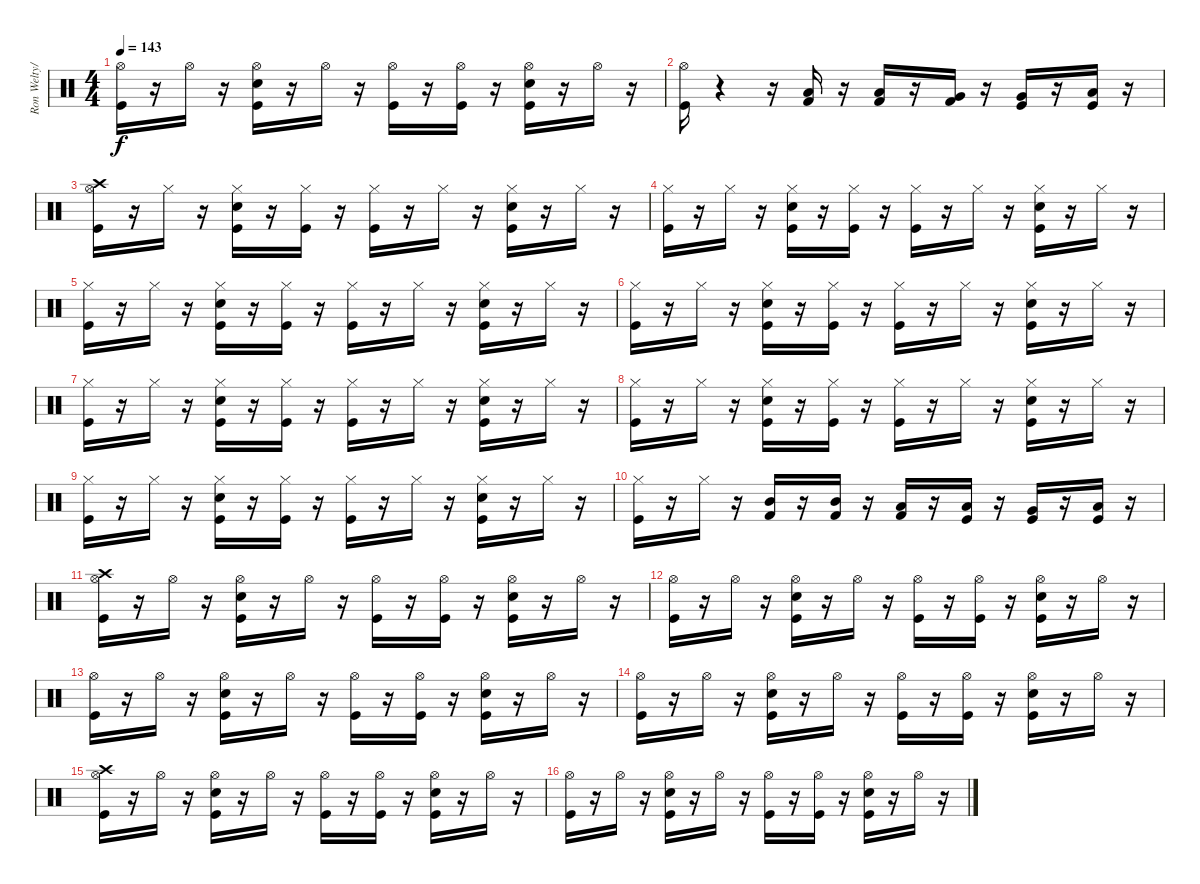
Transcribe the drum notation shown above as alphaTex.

\track ("Ron Welty/Atom Willard" "Ron Welty/") {instrument percussion}
\staff {score}
\articulation defaults
\ts (4 4)
\tempo 143
\clef neutral
\ks c
("Kick (hit)" "Hi-Hat (open)").16{dy f} r.16 "Hi-Hat (open)".16 r.16 ("Snare (hit) 2" "Kick (hit)" "Hi-Hat (open)").16 r.16 "Hi-Hat (open)".16 r.16 ("Kick (hit)" "Hi-Hat (open)").16 r.16 ("Kick (hit)" "Hi-Hat (open)").16 r.16 ("Kick (hit)" "Snare (hit) 2" "Hi-Hat (open)").16 r.16 "Hi-Hat (open)".16 r.16 |
("Kick (hit)" "Hi-Hat (open)").16 r.4 r.16 ("Low Tom (hit)" "Kick (hit) 2").16 r.16 ("Low Tom (hit)" "Kick (hit) 2").16 r.16 ("Very Low Tom (hit)" "Kick (hit) 2").16 r.16 ("Very Low Tom (hit)" "Kick (hit)").16 r.16 ("Low Floor Tom (hit)" "Kick (hit)").16 r.16 |
("Kick (hit)" "Hi-Hat (open)" "Crash high (hit)").16 r.16 "Hi-Hat (closed)".16 r.16 ("Snare (hit) 2" "Kick (hit)" "Hi-Hat (closed)").16 r.16 ("Kick (hit)" "Hi-Hat (closed)").16 r.16 ("Kick (hit)" "Hi-Hat (closed)").16 r.16 "Hi-Hat (closed)".16 r.16 ("Snare (hit) 2" "Kick (hit)" "Hi-Hat (closed)").16 r.16 "Hi-Hat (closed)".16 r.16 |
("Kick (hit)" "Hi-Hat (closed)").16 r.16 "Hi-Hat (closed)".16 r.16 ("Snare (hit) 2" "Kick (hit)" "Hi-Hat (closed)").16 r.16 ("Kick (hit)" "Hi-Hat (closed)").16 r.16 ("Kick (hit)" "Hi-Hat (closed)").16 r.16 "Hi-Hat (closed)".16 r.16 ("Snare (hit) 2" "Kick (hit)" "Hi-Hat (closed)").16 r.16 "Hi-Hat (closed)".16 r.16 |
("Hi-Hat (closed)" "Kick (hit)").16 r.16 "Hi-Hat (closed)".16 r.16 ("Snare (hit) 2" "Kick (hit)" "Hi-Hat (closed)").16 r.16 ("Kick (hit)" "Hi-Hat (closed)").16 r.16 ("Kick (hit)" "Hi-Hat (closed)").16 r.16 "Hi-Hat (closed)".16 r.16 ("Snare (hit) 2" "Kick (hit)" "Hi-Hat (closed)").16 r.16 "Hi-Hat (closed)".16 r.16 |
("Hi-Hat (closed)" "Kick (hit)").16 r.16 "Hi-Hat (closed)".16 r.16 ("Snare (hit) 2" "Kick (hit)" "Hi-Hat (closed)").16 r.16 ("Kick (hit)" "Hi-Hat (closed)").16 r.16 ("Kick (hit)" "Hi-Hat (closed)").16 r.16 "Hi-Hat (closed)".16 r.16 ("Snare (hit) 2" "Kick (hit)" "Hi-Hat (closed)").16 r.16 "Hi-Hat (closed)".16 r.16 |
("Hi-Hat (closed)" "Kick (hit)").16 r.16 "Hi-Hat (closed)".16 r.16 ("Snare (hit) 2" "Kick (hit)" "Hi-Hat (closed)").16 r.16 ("Kick (hit)" "Hi-Hat (closed)").16 r.16 ("Kick (hit)" "Hi-Hat (closed)").16 r.16 "Hi-Hat (closed)".16 r.16 ("Snare (hit) 2" "Kick (hit)" "Hi-Hat (closed)").16 r.16 "Hi-Hat (closed)".16 r.16 |
("Hi-Hat (closed)" "Kick (hit)").16 r.16 "Hi-Hat (closed)".16 r.16 ("Snare (hit) 2" "Kick (hit)" "Hi-Hat (closed)").16 r.16 ("Kick (hit)" "Hi-Hat (closed)").16 r.16 ("Kick (hit)" "Hi-Hat (closed)").16 r.16 "Hi-Hat (closed)".16 r.16 ("Snare (hit) 2" "Kick (hit)" "Hi-Hat (closed)").16 r.16 "Hi-Hat (closed)".16 r.16 |
("Hi-Hat (closed)" "Kick (hit)").16 r.16 "Hi-Hat (closed)".16 r.16 ("Snare (hit) 2" "Kick (hit)" "Hi-Hat (closed)").16 r.16 ("Kick (hit)" "Hi-Hat (closed)").16 r.16 ("Kick (hit)" "Hi-Hat (closed)").16 r.16 "Hi-Hat (closed)".16 r.16 ("Snare (hit) 2" "Kick (hit)" "Hi-Hat (closed)").16 r.16 "Hi-Hat (closed)".16 r.16 |
("Hi-Hat (closed)" "Kick (hit)").16 r.16 "Hi-Hat (closed)".16 r.16 ("Kick (hit) 2" "Mid Tom (hit)").16 r.16 ("Kick (hit) 2" "Mid Tom (hit)").16 r.16 ("Kick (hit) 2" "Low Tom (hit)").16 r.16 ("Kick (hit)" "Low Tom (hit)").16 r.16 ("Kick (hit)" "Very Low Tom (hit)").16 r.16 ("Kick (hit)" "Low Floor Tom (hit)").16 r.16 |
("Crash high (hit)" "Hi-Hat (open)" "Kick (hit)").16 r.16 "Hi-Hat (open)".16 r.16 ("Snare (hit) 2" "Kick (hit)" "Hi-Hat (open)").16 r.16 "Hi-Hat (open)".16 r.16 ("Kick (hit)" "Hi-Hat (open)").16 r.16 ("Kick (hit)" "Hi-Hat (open)").16 r.16 ("Kick (hit)" "Snare (hit) 2" "Hi-Hat (open)").16 r.16 "Hi-Hat (open)".16 r.16 |
("Kick (hit)" "Hi-Hat (open)").16 r.16 "Hi-Hat (open)".16 r.16 ("Snare (hit) 2" "Kick (hit)" "Hi-Hat (open)").16 r.16 "Hi-Hat (open)".16 r.16 ("Kick (hit)" "Hi-Hat (open)").16 r.16 ("Kick (hit)" "Hi-Hat (open)").16 r.16 ("Kick (hit)" "Snare (hit) 2" "Hi-Hat (open)").16 r.16 "Hi-Hat (open)".16 r.16 |
("Hi-Hat (open)" "Kick (hit)").16 r.16 "Hi-Hat (open)".16 r.16 ("Snare (hit) 2" "Kick (hit)" "Hi-Hat (open)").16 r.16 "Hi-Hat (open)".16 r.16 ("Kick (hit)" "Hi-Hat (open)").16 r.16 ("Kick (hit)" "Hi-Hat (open)").16 r.16 ("Kick (hit)" "Snare (hit) 2" "Hi-Hat (open)").16 r.16 "Hi-Hat (open)".16 r.16 |
("Hi-Hat (open)" "Kick (hit)").16 r.16 "Hi-Hat (open)".16 r.16 ("Snare (hit) 2" "Kick (hit)" "Hi-Hat (open)").16 r.16 "Hi-Hat (open)".16 r.16 ("Kick (hit)" "Hi-Hat (open)").16 r.16 ("Kick (hit)" "Hi-Hat (open)").16 r.16 ("Kick (hit)" "Snare (hit) 2" "Hi-Hat (open)").16 r.16 "Hi-Hat (open)".16 r.16 |
("Hi-Hat (open)" "Kick (hit)" "Crash high (hit)").16 r.16 "Hi-Hat (open)".16 r.16 ("Snare (hit) 2" "Kick (hit)" "Hi-Hat (open)").16 r.16 "Hi-Hat (open)".16 r.16 ("Kick (hit)" "Hi-Hat (open)").16 r.16 ("Kick (hit)" "Hi-Hat (open)").16 r.16 ("Kick (hit)" "Snare (hit) 2" "Hi-Hat (open)").16 r.16 "Hi-Hat (open)".16 r.16 |
("Hi-Hat (open)" "Kick (hit)").16 r.16 "Hi-Hat (open)".16 r.16 ("Snare (hit) 2" "Kick (hit)" "Hi-Hat (open)").16 r.16 "Hi-Hat (open)".16 r.16 ("Kick (hit)" "Hi-Hat (open)").16 r.16 ("Kick (hit)" "Hi-Hat (open)").16 r.16 ("Kick (hit)" "Snare (hit) 2" "Hi-Hat (open)").16 r.16 "Hi-Hat (open)".16 r.16
